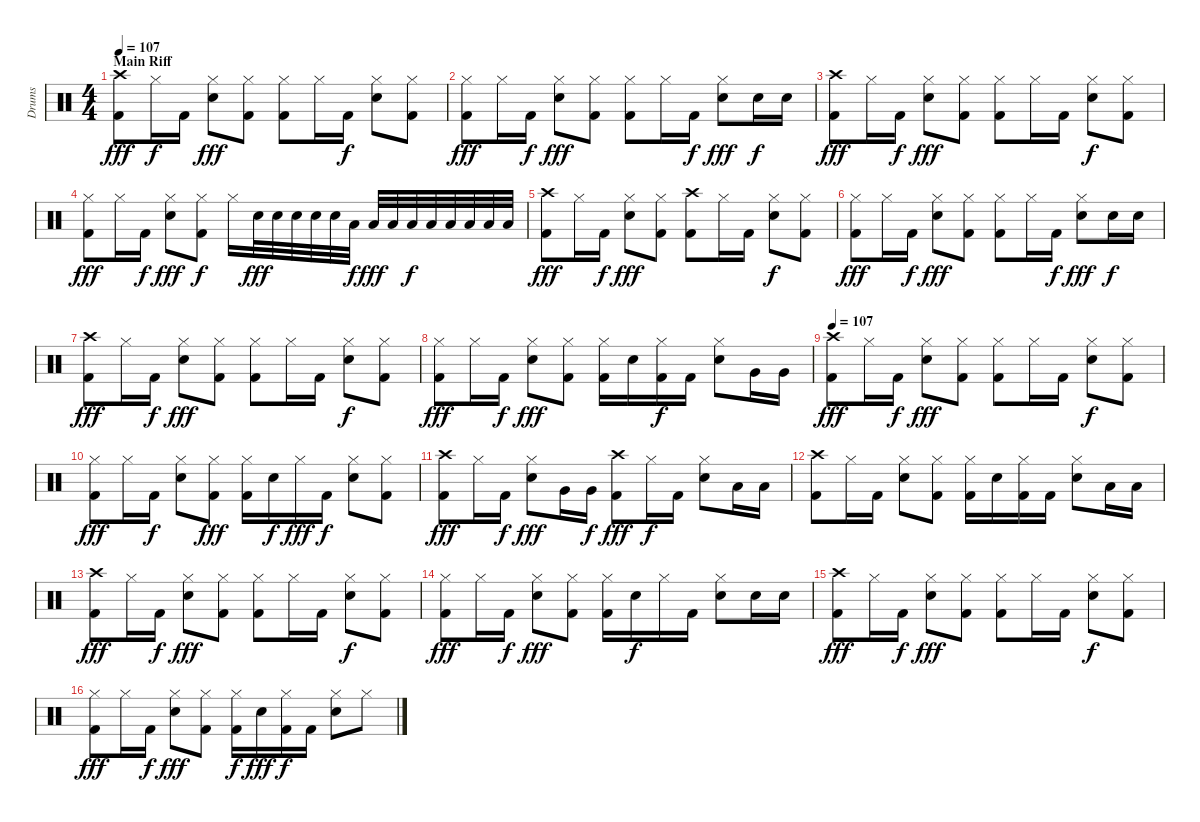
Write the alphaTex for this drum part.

\track ("Drums" "Drums") {instrument percussion}
\staff {score}
\articulation defaults
\ts (4 4)
\section ("" "Main Riff")
\tempo 107
\clef neutral
\ks c
("Crash high (hit)" "Kick (hit) 2").8{dy fff} "Hi-Hat (closed)".16{dy f} "Kick (hit) 2".16 ("Hi-Hat (closed)" "Electric Snare (hit)").8{dy fff} ("Hi-Hat (closed)" "Kick (hit) 2").8 ("Hi-Hat (closed)" "Kick (hit) 2").8 "Hi-Hat (closed)".16 "Kick (hit) 2".16{dy f} ("Hi-Hat (closed)" "Electric Snare (hit)").8 ("Hi-Hat (closed)" "Kick (hit) 2").8 |
("Hi-Hat (closed)" "Kick (hit) 2").8{dy fff} "Hi-Hat (closed)".16 "Kick (hit) 2".16{dy f} ("Hi-Hat (closed)" "Electric Snare (hit)").8{dy fff} ("Hi-Hat (closed)" "Kick (hit) 2").8 ("Hi-Hat (closed)" "Kick (hit) 2").8 "Hi-Hat (closed)".16 "Kick (hit) 2".16{dy f} ("Hi-Hat (closed)" "Electric Snare (hit)").8{dy fff} "Electric Snare (hit)".16{dy f} "Electric Snare (hit)".16 |
("Crash high (hit)" "Kick (hit) 2").8{dy fff} "Hi-Hat (closed)".16 "Kick (hit) 2".16{dy f} ("Hi-Hat (closed)" "Electric Snare (hit)").8{dy fff} ("Hi-Hat (closed)" "Kick (hit) 2").8 ("Hi-Hat (closed)" "Kick (hit) 2").8 "Hi-Hat (closed)".16 "Kick (hit) 2".16 ("Hi-Hat (closed)" "Electric Snare (hit)").8{dy f} ("Hi-Hat (closed)" "Kick (hit) 2").8 |
("Hi-Hat (closed)" "Kick (hit) 2").8{dy fff} "Hi-Hat (closed)".16 "Kick (hit) 2".16{dy f} ("Hi-Hat (closed)" "Electric Snare (hit)").8{dy fff} ("Hi-Hat (closed)" "Kick (hit) 2").8{dy f} "Hi-Hat (closed)".16 "Electric Snare (hit)".32{dy fff} "Electric Snare (hit)".32 "Electric Snare (hit)".32 "Electric Snare (hit)".32 "Electric Snare (hit)".32 "Low Tom (hit)".32{dy f} "Low Tom (hit)".32{dy fff} "Low Tom (hit)".32 "Low Tom (hit)".32{dy f} "Low Tom (hit)".32 "Low Tom (hit)".32 "Low Tom (hit)".32 "Low Tom (hit)".32 "Low Tom (hit)".32 |
("Crash high (hit)" "Kick (hit) 2").8{dy fff} "Hi-Hat (closed)".16 "Kick (hit) 2".16{dy f} ("Hi-Hat (closed)" "Electric Snare (hit)").8{dy fff} ("Hi-Hat (closed)" "Kick (hit) 2").8 ("Crash high (hit)" "Kick (hit) 2").8 "Hi-Hat (closed)".16 "Kick (hit) 2".16 ("Hi-Hat (closed)" "Electric Snare (hit)").8{dy f} ("Hi-Hat (closed)" "Kick (hit) 2").8 |
("Hi-Hat (closed)" "Kick (hit) 2").8{dy fff} "Hi-Hat (closed)".16 "Kick (hit) 2".16{dy f} ("Hi-Hat (closed)" "Electric Snare (hit)").8{dy fff} ("Hi-Hat (closed)" "Kick (hit) 2").8 ("Hi-Hat (closed)" "Kick (hit) 2").8 "Hi-Hat (closed)".16 "Kick (hit) 2".16{dy f} ("Hi-Hat (closed)" "Electric Snare (hit)").8{dy fff} "Electric Snare (hit)".16{dy f} "Electric Snare (hit)".16 |
("Crash high (hit)" "Kick (hit) 2").8{dy fff} "Hi-Hat (closed)".16 "Kick (hit) 2".16{dy f} ("Hi-Hat (closed)" "Electric Snare (hit)").8{dy fff} ("Hi-Hat (closed)" "Kick (hit) 2").8 ("Hi-Hat (closed)" "Kick (hit) 2").8 "Hi-Hat (closed)".16 "Kick (hit) 2".16 ("Hi-Hat (closed)" "Electric Snare (hit)").8{dy f} ("Hi-Hat (closed)" "Kick (hit) 2").8 |
("Hi-Hat (closed)" "Kick (hit) 2").8{dy fff} "Hi-Hat (closed)".16 "Kick (hit) 2".16{dy f} ("Hi-Hat (closed)" "Electric Snare (hit)").8{dy fff} ("Hi-Hat (closed)" "Kick (hit) 2").8 ("Hi-Hat (closed)" "Kick (hit) 2").16 "Electric Snare (hit)".16 ("Hi-Hat (closed)" "Kick (hit) 2").16{dy f} "Kick (hit) 2".16 ("Hi-Hat (closed)" "Electric Snare (hit)").8 "Very Low Tom (hit)".16 "Very Low Tom (hit)".16 |
\tempo 107
("Crash high (hit)" "Kick (hit) 2").8{dy fff} "Hi-Hat (closed)".16 "Kick (hit) 2".16{dy f} ("Hi-Hat (closed)" "Electric Snare (hit)").8{dy fff} ("Hi-Hat (closed)" "Kick (hit) 2").8 ("Hi-Hat (closed)" "Kick (hit) 2").8 "Hi-Hat (closed)".16 "Kick (hit) 2".16 ("Hi-Hat (closed)" "Electric Snare (hit)").8{dy f} ("Hi-Hat (closed)" "Kick (hit) 2").8 |
("Hi-Hat (closed)" "Kick (hit) 2").8{dy fff} "Hi-Hat (closed)".16 "Kick (hit) 2".16{dy f} ("Hi-Hat (closed)" "Electric Snare (hit)").8 ("Hi-Hat (closed)" "Kick (hit) 2").8{dy fff} ("Hi-Hat (closed)" "Kick (hit) 2").16 "Electric Snare (hit)".16{dy f} "Hi-Hat (closed)".16{dy fff} "Kick (hit) 2".16{dy f} ("Hi-Hat (closed)" "Electric Snare (hit)").8 ("Hi-Hat (closed)" "Kick (hit) 2").8 |
("Crash high (hit)" "Kick (hit) 2").8{dy fff} "Hi-Hat (closed)".16 "Kick (hit) 2".16{dy f} ("Hi-Hat (closed)" "Electric Snare (hit)").8{dy fff} "Very Low Tom (hit)".16 "Very Low Tom (hit)".16{dy f} ("Crash high (hit)" "Kick (hit) 2").8{dy fff} "Hi-Hat (closed)".16{dy f} "Kick (hit) 2".16 ("Hi-Hat (closed)" "Electric Snare (hit)").8 "Low Tom (hit)".16 "Low Tom (hit)".16 |
("Crash high (hit)" "Kick (hit) 2").8 "Hi-Hat (closed)".16 "Kick (hit) 2".16 ("Hi-Hat (closed)" "Electric Snare (hit)").8 ("Hi-Hat (closed)" "Kick (hit) 2").8 ("Hi-Hat (closed)" "Kick (hit) 2").16 "Electric Snare (hit)".16 ("Hi-Hat (closed)" "Kick (hit) 2").16 "Kick (hit) 2".16 ("Hi-Hat (closed)" "Electric Snare (hit)").8 "Low Tom (hit)".16 "Low Tom (hit)".16 |
("Crash high (hit)" "Kick (hit) 2").8{dy fff} "Hi-Hat (closed)".16 "Kick (hit) 2".16{dy f} ("Hi-Hat (closed)" "Electric Snare (hit)").8{dy fff} ("Hi-Hat (closed)" "Kick (hit) 2").8 ("Hi-Hat (closed)" "Kick (hit) 2").8 "Hi-Hat (closed)".16 "Kick (hit) 2".16 ("Hi-Hat (closed)" "Electric Snare (hit)").8{dy f} ("Hi-Hat (closed)" "Kick (hit) 2").8 |
("Hi-Hat (closed)" "Kick (hit) 2").8{dy fff} "Hi-Hat (closed)".16 "Kick (hit) 2".16{dy f} ("Hi-Hat (closed)" "Electric Snare (hit)").8{dy fff} ("Hi-Hat (closed)" "Kick (hit) 2").8 ("Hi-Hat (closed)" "Kick (hit) 2").16 "Electric Snare (hit)".16{dy f} "Hi-Hat (closed)".16 "Kick (hit) 2".16 ("Hi-Hat (closed)" "Electric Snare (hit)").8 "Electric Snare (hit)".16 "Electric Snare (hit)".16 |
("Crash high (hit)" "Kick (hit) 2").8{dy fff} "Hi-Hat (closed)".16 "Kick (hit) 2".16{dy f} ("Hi-Hat (closed)" "Electric Snare (hit)").8{dy fff} ("Hi-Hat (closed)" "Kick (hit) 2").8 ("Hi-Hat (closed)" "Kick (hit) 2").8 "Hi-Hat (closed)".16 "Kick (hit) 2".16 ("Hi-Hat (closed)" "Electric Snare (hit)").8{dy f} ("Hi-Hat (closed)" "Kick (hit) 2").8 |
("Hi-Hat (closed)" "Kick (hit) 2").8{dy fff} "Hi-Hat (closed)".16 "Kick (hit) 2".16{dy f} ("Hi-Hat (closed)" "Electric Snare (hit)").8{dy fff} ("Hi-Hat (closed)" "Kick (hit) 2").8 ("Hi-Hat (closed)" "Kick (hit) 2").16{dy f} "Electric Snare (hit)".16{dy fff} ("Hi-Hat (closed)" "Kick (hit) 2").16{dy f} "Kick (hit) 2".16 ("Hi-Hat (closed)" "Electric Snare (hit)").8 "Hi-Hat (closed)".8
